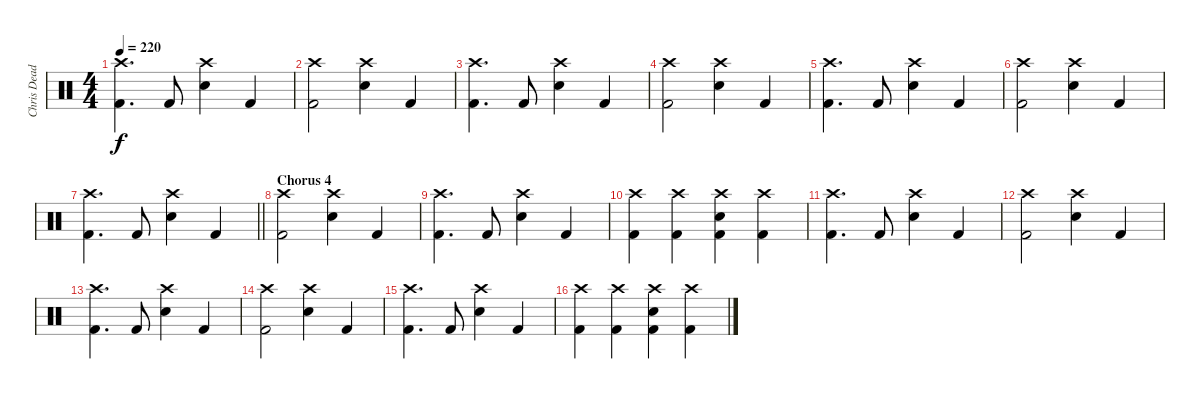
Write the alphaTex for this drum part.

\track ("Chris Dead" "Chris Dead") {instrument percussion}
\staff {score}
\articulation defaults
\ts (4 4)
\tempo 220
\clef neutral
\ks c
("Crash high (hit)" "Kick (hit) 2").4{d dy f} "Kick (hit) 2".8 ("Crash high (hit)" "Electric Snare (hit)").4 "Kick (hit) 2".4 |
("Crash high (hit)" "Kick (hit) 2").2 ("Crash high (hit)" "Electric Snare (hit)").4 "Kick (hit) 2".4 |
("Crash high (hit)" "Kick (hit) 2").4{d} "Kick (hit) 2".8 ("Crash high (hit)" "Electric Snare (hit)").4 "Kick (hit) 2".4 |
("Crash high (hit)" "Kick (hit) 2").2 ("Crash high (hit)" "Electric Snare (hit)").4 "Kick (hit) 2".4 |
("Crash high (hit)" "Kick (hit) 2").4{d} "Kick (hit) 2".8 ("Crash high (hit)" "Electric Snare (hit)").4 "Kick (hit) 2".4 |
("Crash high (hit)" "Kick (hit) 2").2 ("Crash high (hit)" "Electric Snare (hit)").4 "Kick (hit) 2".4 |
\barLineRight lightlight
("Crash high (hit)" "Kick (hit) 2").4{d} "Kick (hit) 2".8 ("Crash high (hit)" "Electric Snare (hit)").4 "Kick (hit) 2".4 |
\section ("" "Chorus 4")
("Crash high (hit)" "Kick (hit) 2").2 ("Crash high (hit)" "Electric Snare (hit)").4 "Kick (hit) 2".4 |
("Crash high (hit)" "Kick (hit) 2").4{d} "Kick (hit) 2".8 ("Crash high (hit)" "Electric Snare (hit)").4 "Kick (hit) 2".4 |
("Crash high (hit)" "Kick (hit) 2").4 ("Crash high (hit)" "Kick (hit) 2").4 ("Crash high (hit)" "Electric Snare (hit)" "Kick (hit) 2").4 ("Crash high (hit)" "Kick (hit) 2").4 |
("Crash high (hit)" "Kick (hit) 2").4{d} "Kick (hit) 2".8 ("Crash high (hit)" "Electric Snare (hit)").4 "Kick (hit) 2".4 |
("Crash high (hit)" "Kick (hit) 2").2 ("Crash high (hit)" "Electric Snare (hit)").4 "Kick (hit) 2".4 |
("Crash high (hit)" "Kick (hit) 2").4{d} "Kick (hit) 2".8 ("Crash high (hit)" "Electric Snare (hit)").4 "Kick (hit) 2".4 |
("Crash high (hit)" "Kick (hit) 2").2 ("Crash high (hit)" "Electric Snare (hit)").4 "Kick (hit) 2".4 |
("Crash high (hit)" "Kick (hit) 2").4{d} "Kick (hit) 2".8 ("Crash high (hit)" "Electric Snare (hit)").4 "Kick (hit) 2".4 |
("Crash high (hit)" "Kick (hit) 2").4 ("Crash high (hit)" "Kick (hit) 2").4 ("Crash high (hit)" "Electric Snare (hit)" "Kick (hit) 2").4 ("Crash high (hit)" "Kick (hit) 2").4
